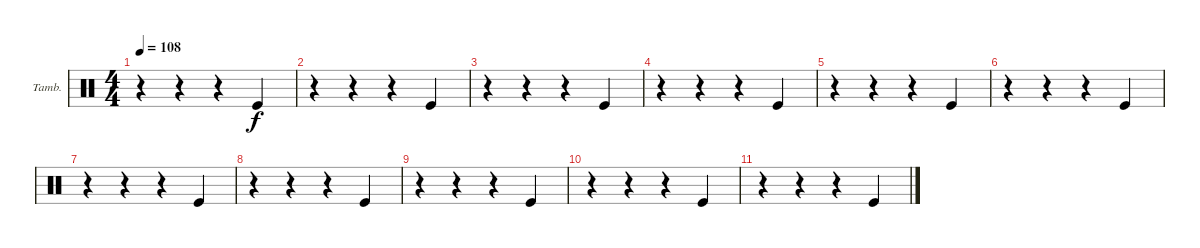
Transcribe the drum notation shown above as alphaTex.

\defaultSystemsLayout 4
\bracketExtendMode groupsimilarinstruments
\firstSystemTrackNameOrientation horizontal
\otherSystemsTrackNameOrientation horizontal
\track ("Tambourine" "Tamb.") {instrument percussion}
\staff {score}
\articulation defaults
\ts (4 4)
\tempo 108
\clef neutral
\ks c
r.4{dy f} r.4 r.4 "Kick (hit)".4 |
r.4 r.4 r.4 "Kick (hit)".4 |
r.4 r.4 r.4 "Kick (hit)".4 |
r.4 r.4 r.4 "Kick (hit)".4 |
r.4 r.4 r.4 "Kick (hit)".4 |
r.4 r.4 r.4 "Kick (hit)".4 |
r.4 r.4 r.4 "Kick (hit)".4 |
r.4 r.4 r.4 "Kick (hit)".4 |
r.4 r.4 r.4 "Kick (hit)".4 |
r.4 r.4 r.4 "Kick (hit)".4 |
r.4 r.4 r.4 "Kick (hit)".4
